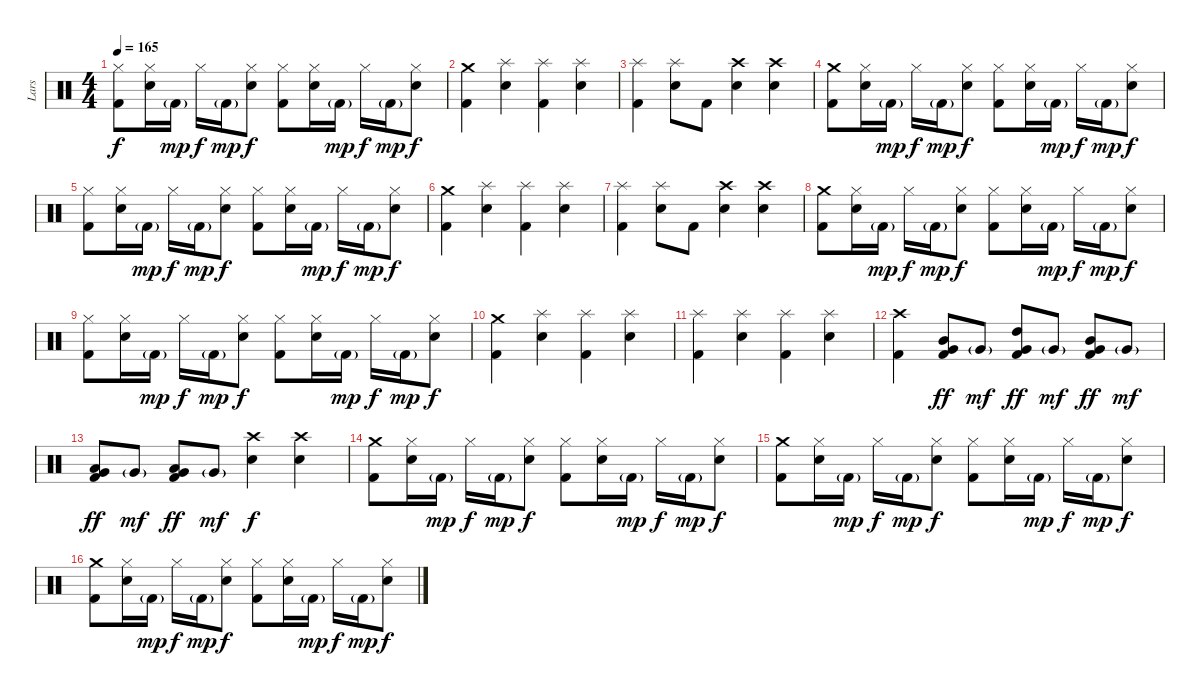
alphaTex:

\track ("Lars" "Lars") {instrument percussion}
\staff {score}
\articulation defaults
\ts (4 4)
\tempo 165
\clef neutral
\ks c
("Hi-Hat (closed)" "Kick (hit) 2").8{dy f} ("Hi-Hat (closed)" "Snare (hit) 2").16 "Kick (hit) 2"{g}.16{dy mp} "Hi-Hat (closed)".16{dy f} "Kick (hit) 2"{g}.16{dy mp} ("Hi-Hat (closed)" "Snare (hit) 2").8{dy f} ("Hi-Hat (closed)" "Kick (hit) 2").8 ("Hi-Hat (closed)" "Snare (hit) 2").16 "Kick (hit) 2"{g}.16{dy mp} "Hi-Hat (closed)".16{dy f} "Kick (hit) 2"{g}.16{dy mp} ("Hi-Hat (closed)" "Snare (hit) 2").8{dy f} |
("Crash medium (hit)" "Kick (hit) 2").4 ("Splash (hit)" "Snare (hit) 2").4 ("Splash (hit)" "Kick (hit) 2").4 ("Splash (hit)" "Snare (hit) 2").4 |
("Splash (hit)" "Kick (hit) 2").4 ("Splash (hit)" "Snare (hit) 2").8 "Kick (hit) 2".8 ("Crash high (hit)" "Snare (hit) 2").4 ("Crash high (hit)" "Snare (hit) 2").4 |
("Crash medium (hit)" "Kick (hit) 2").8 ("Hi-Hat (closed)" "Snare (hit) 2").16 "Kick (hit) 2"{g}.16{dy mp} "Hi-Hat (closed)".16{dy f} "Kick (hit) 2"{g}.16{dy mp} ("Hi-Hat (closed)" "Snare (hit) 2").8{dy f} ("Hi-Hat (closed)" "Kick (hit) 2").8 ("Hi-Hat (closed)" "Snare (hit) 2").16 "Kick (hit) 2"{g}.16{dy mp} "Hi-Hat (closed)".16{dy f} "Kick (hit) 2"{g}.16{dy mp} ("Hi-Hat (closed)" "Snare (hit) 2").8{dy f} |
("Hi-Hat (closed)" "Kick (hit) 2").8 ("Hi-Hat (closed)" "Snare (hit) 2").16 "Kick (hit) 2"{g}.16{dy mp} "Hi-Hat (closed)".16{dy f} "Kick (hit) 2"{g}.16{dy mp} ("Hi-Hat (closed)" "Snare (hit) 2").8{dy f} ("Hi-Hat (closed)" "Kick (hit) 2").8 ("Hi-Hat (closed)" "Snare (hit) 2").16 "Kick (hit) 2"{g}.16{dy mp} "Hi-Hat (closed)".16{dy f} "Kick (hit) 2"{g}.16{dy mp} ("Hi-Hat (closed)" "Snare (hit) 2").8{dy f} |
("Crash medium (hit)" "Kick (hit) 2").4 ("Splash (hit)" "Snare (hit) 2").4 ("Splash (hit)" "Kick (hit) 2").4 ("Splash (hit)" "Snare (hit) 2").4 |
("Splash (hit)" "Kick (hit) 2").4 ("Splash (hit)" "Snare (hit) 2").8 "Kick (hit) 2".8 ("Crash high (hit)" "Snare (hit) 2").4 ("Crash high (hit)" "Snare (hit) 2").4 |
("Crash medium (hit)" "Kick (hit) 2").8 ("Hi-Hat (closed)" "Snare (hit) 2").16 "Kick (hit) 2"{g}.16{dy mp} "Hi-Hat (closed)".16{dy f} "Kick (hit) 2"{g}.16{dy mp} ("Hi-Hat (closed)" "Snare (hit) 2").8{dy f} ("Hi-Hat (closed)" "Kick (hit) 2").8 ("Hi-Hat (closed)" "Snare (hit) 2").16 "Kick (hit) 2"{g}.16{dy mp} "Hi-Hat (closed)".16{dy f} "Kick (hit) 2"{g}.16{dy mp} ("Hi-Hat (closed)" "Snare (hit) 2").8{dy f} |
("Hi-Hat (closed)" "Kick (hit) 2").8 ("Hi-Hat (closed)" "Snare (hit) 2").16 "Kick (hit) 2"{g}.16{dy mp} "Hi-Hat (closed)".16{dy f} "Kick (hit) 2"{g}.16{dy mp} ("Hi-Hat (closed)" "Snare (hit) 2").8{dy f} ("Hi-Hat (closed)" "Kick (hit) 2").8 ("Hi-Hat (closed)" "Snare (hit) 2").16 "Kick (hit) 2"{g}.16{dy mp} "Hi-Hat (closed)".16{dy f} "Kick (hit) 2"{g}.16{dy mp} ("Hi-Hat (closed)" "Snare (hit) 2").8{dy f} |
("Crash medium (hit)" "Kick (hit) 2").4 ("Splash (hit)" "Snare (hit) 2").4 ("Splash (hit)" "Kick (hit) 2").4 ("Splash (hit)" "Snare (hit) 2").4 |
("Splash (hit)" "Kick (hit) 2").4 ("Splash (hit)" "Snare (hit) 2").4 ("Splash (hit)" "Kick (hit) 2").4 ("Splash (hit)" "Snare (hit) 2").4 |
("Crash high (hit)" "Kick (hit) 2").4 ("Mid Tom (hit)" "Very Low Tom (hit)" "Kick (hit) 2").8{dy ff} "Very Low Tom (hit)"{g}.8{dy mf} ("High Tom (hit)" "Very Low Tom (hit)" "Kick (hit) 2").8{dy ff} "Very Low Tom (hit)"{g}.8{dy mf} ("Mid Tom (hit)" "Very Low Tom (hit)" "Kick (hit) 2").8{dy ff} "Very Low Tom (hit)"{g}.8{dy mf} |
("Low Tom (hit)" "Very Low Tom (hit)" "Kick (hit) 2").8{dy ff} "Very Low Tom (hit)"{g}.8{dy mf} ("Low Tom (hit)" "Very Low Tom (hit)" "Kick (hit) 2").8{dy ff} "Very Low Tom (hit)"{g}.8{dy mf} ("Crash high (hit)" "Snare (hit) 2").4{dy f} ("Crash high (hit)" "Snare (hit) 2").4 |
("Crash medium (hit)" "Kick (hit) 2").8 ("Hi-Hat (closed)" "Snare (hit) 2").16 "Kick (hit) 2"{g}.16{dy mp} "Hi-Hat (closed)".16{dy f} "Kick (hit) 2"{g}.16{dy mp} ("Hi-Hat (closed)" "Snare (hit) 2").8{dy f} ("Hi-Hat (closed)" "Kick (hit) 2").8 ("Hi-Hat (closed)" "Snare (hit) 2").16 "Kick (hit) 2"{g}.16{dy mp} "Hi-Hat (closed)".16{dy f} "Kick (hit) 2"{g}.16{dy mp} ("Hi-Hat (closed)" "Snare (hit) 2").8{dy f} |
("Crash medium (hit)" "Kick (hit) 2").8 ("Hi-Hat (closed)" "Snare (hit) 2").16 "Kick (hit) 2"{g}.16{dy mp} "Hi-Hat (closed)".16{dy f} "Kick (hit) 2"{g}.16{dy mp} ("Hi-Hat (closed)" "Snare (hit) 2").8{dy f} ("Hi-Hat (closed)" "Kick (hit) 2").8 ("Hi-Hat (closed)" "Snare (hit) 2").16 "Kick (hit) 2"{g}.16{dy mp} "Hi-Hat (closed)".16{dy f} "Kick (hit) 2"{g}.16{dy mp} ("Hi-Hat (closed)" "Snare (hit) 2").8{dy f} |
("Crash medium (hit)" "Kick (hit) 2").8 ("Hi-Hat (closed)" "Snare (hit) 2").16 "Kick (hit) 2"{g}.16{dy mp} "Hi-Hat (closed)".16{dy f} "Kick (hit) 2"{g}.16{dy mp} ("Hi-Hat (closed)" "Snare (hit) 2").8{dy f} ("Hi-Hat (closed)" "Kick (hit) 2").8 ("Hi-Hat (closed)" "Snare (hit) 2").16 "Kick (hit) 2"{g}.16{dy mp} "Hi-Hat (closed)".16{dy f} "Kick (hit) 2"{g}.16{dy mp} ("Hi-Hat (closed)" "Snare (hit) 2").8{dy f}
